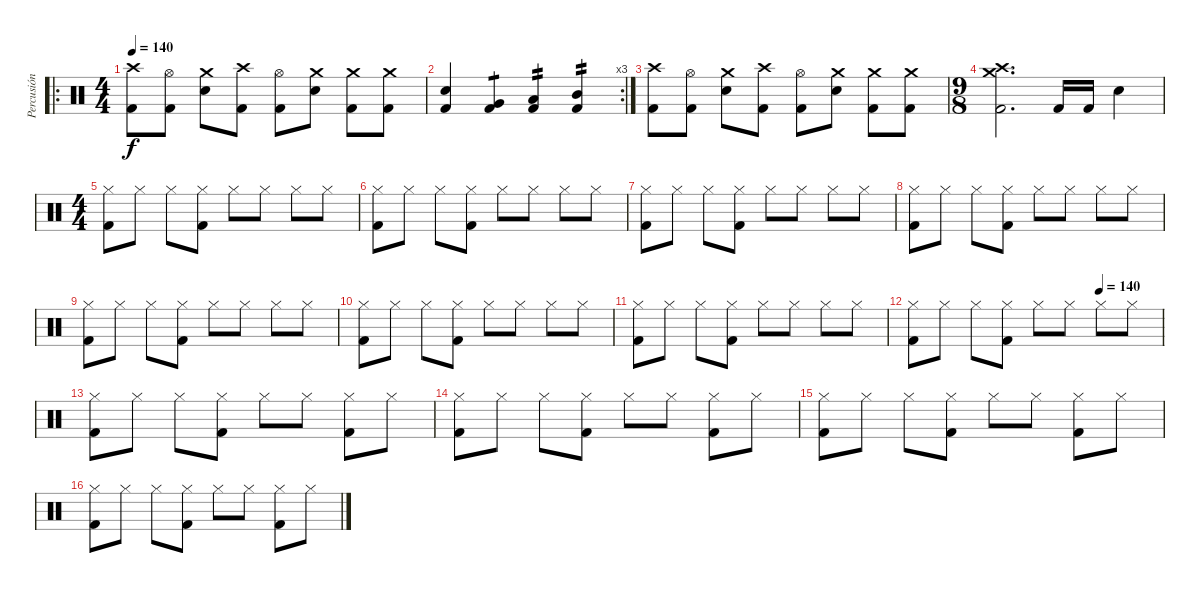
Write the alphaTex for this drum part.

\track ("Percusión" "Percusión") {instrument percussion}
\staff {score}
\articulation defaults
\ro
\ts (4 4)
\tempo 140
\clef neutral
\ks c
("Crash high (hit)" "Kick (hit) 2").8{dy f} ("Hi-Hat (open)" "Kick (hit) 2").8 ("Crash medium (hit)" "Electric Snare (hit)").8 ("Crash high (hit)" "Kick (hit) 2").8 ("Hi-Hat (open)" "Kick (hit) 2").8 ("Crash medium (hit)" "Electric Snare (hit)").8 ("Crash medium (hit)" "Kick (hit) 2").8 ("Crash medium (hit)" "Kick (hit) 2").8 |
\rc 3
("Electric Snare (hit)" "Kick (hit) 2").4 ("Very Low Tom (hit)" "Kick (hit) 2").4{tp 1} ("Low Tom (hit)" "Kick (hit) 2").4{tp 2} ("Mid Tom (hit)" "Kick (hit) 2").4{tp 2} |
("Crash high (hit)" "Kick (hit) 2").8 ("Hi-Hat (open)" "Kick (hit) 2").8 ("Crash medium (hit)" "Electric Snare (hit)").8 ("Crash high (hit)" "Kick (hit) 2").8 ("Hi-Hat (open)" "Kick (hit) 2").8 ("Crash medium (hit)" "Electric Snare (hit)").8 ("Crash medium (hit)" "Kick (hit) 2").8 ("Crash medium (hit)" "Kick (hit) 2").8 |
\ts (9 8)
("Crash high (hit)" "Crash medium (hit)" "Kick (hit) 2").2{d} "Kick (hit) 2".16 "Kick (hit) 2".16 "Electric Snare (hit)".4 |
\ts (4 4)
("Hi-Hat (closed)" "Kick (hit) 2").8 "Hi-Hat (closed)".8 "Hi-Hat (closed)".8 ("Hi-Hat (closed)" "Kick (hit) 2").8 "Hi-Hat (closed)".8 "Hi-Hat (closed)".8 "Hi-Hat (closed)".8 "Hi-Hat (closed)".8 |
("Hi-Hat (closed)" "Kick (hit) 2").8 "Hi-Hat (closed)".8 "Hi-Hat (closed)".8 ("Hi-Hat (closed)" "Kick (hit) 2").8 "Hi-Hat (closed)".8 "Hi-Hat (closed)".8 "Hi-Hat (closed)".8 "Hi-Hat (closed)".8 |
("Hi-Hat (closed)" "Kick (hit) 2").8 "Hi-Hat (closed)".8 "Hi-Hat (closed)".8 ("Hi-Hat (closed)" "Kick (hit) 2").8 "Hi-Hat (closed)".8 "Hi-Hat (closed)".8 "Hi-Hat (closed)".8 "Hi-Hat (closed)".8 |
("Hi-Hat (closed)" "Kick (hit) 2").8 "Hi-Hat (closed)".8 "Hi-Hat (closed)".8 ("Hi-Hat (closed)" "Kick (hit) 2").8 "Hi-Hat (closed)".8 "Hi-Hat (closed)".8 "Hi-Hat (closed)".8 "Hi-Hat (closed)".8 |
("Hi-Hat (closed)" "Kick (hit) 2").8 "Hi-Hat (closed)".8 "Hi-Hat (closed)".8 ("Hi-Hat (closed)" "Kick (hit) 2").8 "Hi-Hat (closed)".8 "Hi-Hat (closed)".8 "Hi-Hat (closed)".8 "Hi-Hat (closed)".8 |
("Hi-Hat (closed)" "Kick (hit) 2").8 "Hi-Hat (closed)".8 "Hi-Hat (closed)".8 ("Hi-Hat (closed)" "Kick (hit) 2").8 "Hi-Hat (closed)".8 "Hi-Hat (closed)".8 "Hi-Hat (closed)".8 "Hi-Hat (closed)".8 |
("Hi-Hat (closed)" "Kick (hit) 2").8 "Hi-Hat (closed)".8 "Hi-Hat (closed)".8 ("Hi-Hat (closed)" "Kick (hit) 2").8 "Hi-Hat (closed)".8 "Hi-Hat (closed)".8 "Hi-Hat (closed)".8 "Hi-Hat (closed)".8 |
\tempo (140 0.75)
("Hi-Hat (closed)" "Kick (hit) 2").8 "Hi-Hat (closed)".8 "Hi-Hat (closed)".8 ("Hi-Hat (closed)" "Kick (hit) 2").8 "Hi-Hat (closed)".8 "Hi-Hat (closed)".8 "Hi-Hat (closed)".8 "Hi-Hat (closed)".8 |
("Hi-Hat (closed)" "Kick (hit) 2").8 "Hi-Hat (closed)".8 "Hi-Hat (closed)".8 ("Hi-Hat (closed)" "Kick (hit) 2").8 "Hi-Hat (closed)".8 "Hi-Hat (closed)".8 ("Hi-Hat (closed)" "Kick (hit) 2").8 "Hi-Hat (closed)".8 |
("Hi-Hat (closed)" "Kick (hit) 2").8 "Hi-Hat (closed)".8 "Hi-Hat (closed)".8 ("Hi-Hat (closed)" "Kick (hit) 2").8 "Hi-Hat (closed)".8 "Hi-Hat (closed)".8 ("Hi-Hat (closed)" "Kick (hit) 2").8 "Hi-Hat (closed)".8 |
("Hi-Hat (closed)" "Kick (hit) 2").8 "Hi-Hat (closed)".8 "Hi-Hat (closed)".8 ("Hi-Hat (closed)" "Kick (hit) 2").8 "Hi-Hat (closed)".8 "Hi-Hat (closed)".8 ("Hi-Hat (closed)" "Kick (hit) 2").8 "Hi-Hat (closed)".8 |
("Hi-Hat (closed)" "Kick (hit) 2").8 "Hi-Hat (closed)".8 "Hi-Hat (closed)".8 ("Hi-Hat (closed)" "Kick (hit) 2").8 "Hi-Hat (closed)".8 "Hi-Hat (closed)".8 ("Hi-Hat (closed)" "Kick (hit) 2").8 "Hi-Hat (closed)".8
